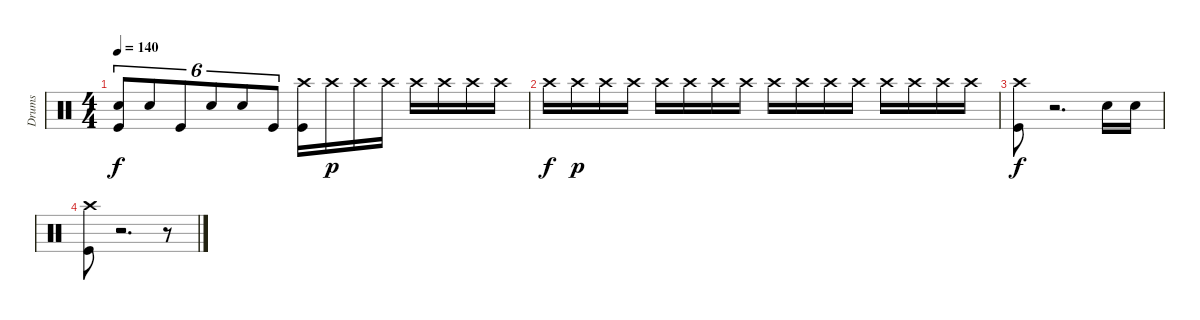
\track ("Drums" "Drums") {instrument percussion}
\staff {score}
\articulation defaults
\ts (4 4)
\tempo 140
\clef neutral
\ks c
("Kick (hit)" "Electric Snare (hit)").8{tu (6 4) dy f} "Electric Snare (hit)".8{tu (6 4)} "Kick (hit)".8{tu (6 4)} "Electric Snare (hit)".8{tu (6 4)} "Electric Snare (hit)".8{tu (6 4)} "Kick (hit)".8{tu (6 4)} ("Kick (hit)" "Crash high (hit)").16 "Crash high (hit)".16{dy p} "Crash high (hit)".16 "Crash high (hit)".16 "Crash high (hit)".16 "Crash high (hit)".16 "Crash high (hit)".16 "Crash high (hit)".16 |
"Crash high (hit)".16{dy f} "Crash high (hit)".16{dy p} "Crash high (hit)".16 "Crash high (hit)".16 "Crash high (hit)".16 "Crash high (hit)".16 "Crash high (hit)".16 "Crash high (hit)".16 "Crash high (hit)".16 "Crash high (hit)".16 "Crash high (hit)".16 "Crash high (hit)".16 "Crash high (hit)".16 "Crash high (hit)".16 "Crash high (hit)".16 "Crash high (hit)".16 |
("Kick (hit)" "Crash high (hit)").8{dy f} r.2{d} "Electric Snare (hit)".16 "Electric Snare (hit)".16 |
("Kick (hit)" "Crash high (hit)").8 r.2{d} r.8
